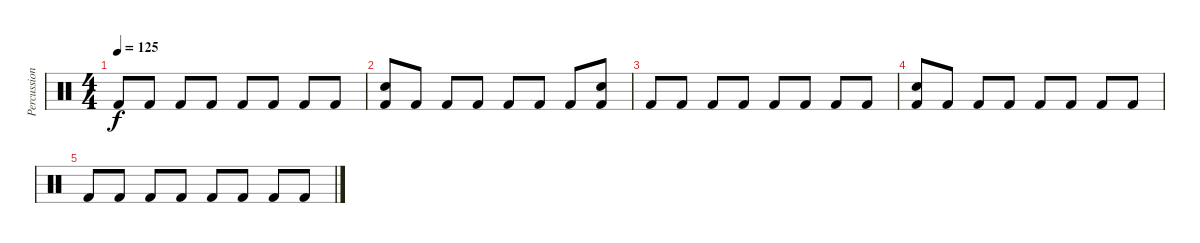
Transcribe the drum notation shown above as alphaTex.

\track ("Percussions" "Percussion") {instrument percussion}
\staff {score}
\articulation defaults
\ts (4 4)
\tempo 125
\clef neutral
\ks c "Kick (hit) 2".8{dy f} "Kick (hit) 2".8 "Kick (hit) 2".8 "Kick (hit) 2".8 "Kick (hit) 2".8 "Kick (hit) 2".8 "Kick (hit) 2".8 "Kick (hit) 2".8
|
("Snare (hit) 2" "Kick (hit) 2").8 "Kick (hit) 2".8 "Kick (hit) 2".8 "Kick (hit) 2".8 "Kick (hit) 2".8 "Kick (hit) 2".8 "Kick (hit) 2".8 ("Snare (hit) 2" "Kick (hit) 2").8 |
"Kick (hit) 2".8 "Kick (hit) 2".8 "Kick (hit) 2".8 "Kick (hit) 2".8 "Kick (hit) 2".8 "Kick (hit) 2".8 "Kick (hit) 2".8 "Kick (hit) 2".8 |
("Snare (hit) 2" "Kick (hit) 2").8 "Kick (hit) 2".8 "Kick (hit) 2".8 "Kick (hit) 2".8 "Kick (hit) 2".8 "Kick (hit) 2".8 "Kick (hit) 2".8 "Kick (hit) 2".8 |
"Kick (hit) 2".8 "Kick (hit) 2".8 "Kick (hit) 2".8 "Kick (hit) 2".8 "Kick (hit) 2".8 "Kick (hit) 2".8 "Kick (hit) 2".8 "Kick (hit) 2".8
